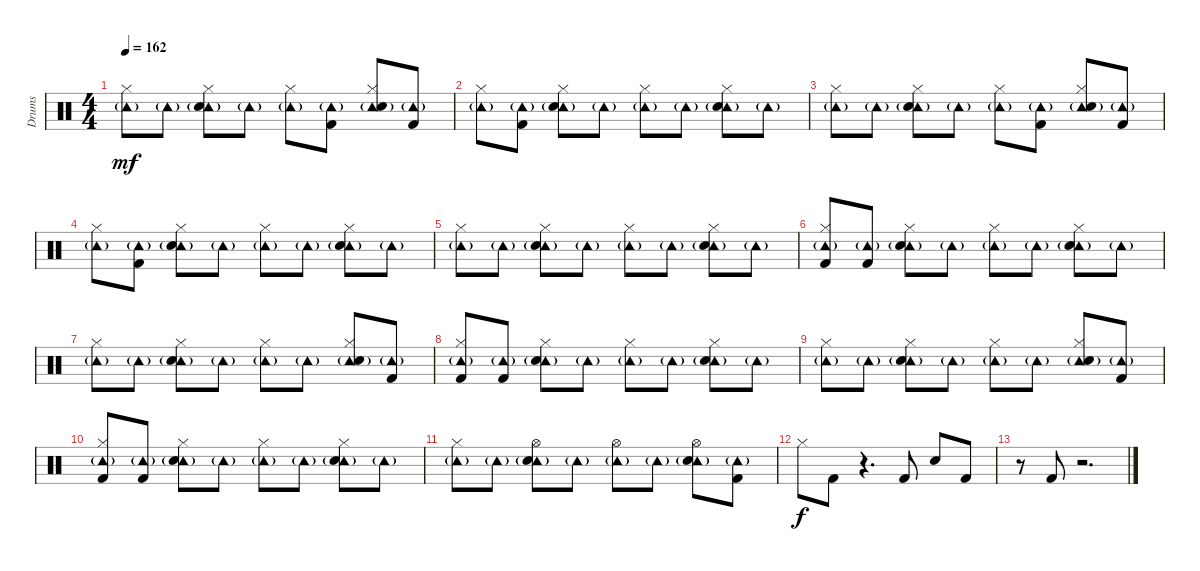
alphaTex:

\track ("Drums" "Drums") {instrument percussion}
\staff {score}
\articulation defaults
\ts (4 4)
\tempo 162
\clef neutral
\ks c
("Tambourine (hit)"{g} "Hi-Hat (closed)").8{dy mf} "Tambourine (hit)"{g}.8 ("Tambourine (hit)"{g} "Snare (hit) 2" "Hi-Hat (closed)").8 "Tambourine (hit)"{g}.8 ("Tambourine (hit)"{g} "Hi-Hat (closed)").8 ("Tambourine (hit)"{g} "Kick (hit) 2").8 ("Tambourine (hit)"{g} "Snare (hit) 2" "Hi-Hat (closed)").8 ("Tambourine (hit)"{g} "Kick (hit) 2").8 |
("Tambourine (hit)"{g} "Hi-Hat (closed)").8 ("Tambourine (hit)"{g} "Kick (hit) 2").8 ("Tambourine (hit)"{g} "Snare (hit) 2" "Hi-Hat (closed)").8 "Tambourine (hit)"{g}.8 ("Tambourine (hit)"{g} "Hi-Hat (closed)").8 "Tambourine (hit)"{g}.8 ("Tambourine (hit)"{g} "Snare (hit) 2" "Hi-Hat (closed)").8 "Tambourine (hit)"{g}.8 |
("Tambourine (hit)"{g} "Hi-Hat (closed)").8 "Tambourine (hit)"{g}.8 ("Tambourine (hit)"{g} "Snare (hit) 2" "Hi-Hat (closed)").8 "Tambourine (hit)"{g}.8 ("Tambourine (hit)"{g} "Hi-Hat (closed)").8 ("Tambourine (hit)"{g} "Kick (hit) 2").8 ("Tambourine (hit)"{g} "Snare (hit) 2" "Hi-Hat (closed)").8 ("Tambourine (hit)"{g} "Kick (hit) 2").8 |
("Tambourine (hit)"{g} "Hi-Hat (closed)").8 ("Tambourine (hit)"{g} "Kick (hit) 2").8 ("Tambourine (hit)"{g} "Snare (hit) 2" "Hi-Hat (closed)").8 "Tambourine (hit)"{g}.8 ("Tambourine (hit)"{g} "Hi-Hat (closed)").8 "Tambourine (hit)"{g}.8 ("Tambourine (hit)"{g} "Snare (hit) 2" "Hi-Hat (closed)").8 "Tambourine (hit)"{g}.8 |
("Tambourine (hit)"{g} "Hi-Hat (closed)").8 "Tambourine (hit)"{g}.8 ("Tambourine (hit)"{g} "Snare (hit) 2" "Hi-Hat (closed)").8 "Tambourine (hit)"{g}.8 ("Tambourine (hit)"{g} "Hi-Hat (closed)").8 "Tambourine (hit)"{g}.8 ("Tambourine (hit)"{g} "Snare (hit) 2" "Hi-Hat (closed)").8 "Tambourine (hit)"{g}.8 |
("Tambourine (hit)"{g} "Hi-Hat (closed)" "Kick (hit) 2").8 ("Tambourine (hit)"{g} "Kick (hit) 2").8 ("Tambourine (hit)"{g} "Snare (hit) 2" "Hi-Hat (closed)").8 "Tambourine (hit)"{g}.8 ("Tambourine (hit)"{g} "Hi-Hat (closed)").8 "Tambourine (hit)"{g}.8 ("Tambourine (hit)"{g} "Snare (hit) 2" "Hi-Hat (closed)").8 "Tambourine (hit)"{g}.8 |
("Tambourine (hit)"{g} "Hi-Hat (closed)").8 "Tambourine (hit)"{g}.8 ("Tambourine (hit)"{g} "Snare (hit) 2" "Hi-Hat (closed)").8 "Tambourine (hit)"{g}.8 ("Tambourine (hit)"{g} "Hi-Hat (closed)").8 "Tambourine (hit)"{g}.8 ("Tambourine (hit)"{g} "Snare (hit) 2" "Hi-Hat (closed)").8 ("Tambourine (hit)"{g} "Kick (hit) 2").8 |
("Tambourine (hit)"{g} "Hi-Hat (closed)" "Kick (hit) 2").8 ("Tambourine (hit)"{g} "Kick (hit) 2").8 ("Tambourine (hit)"{g} "Snare (hit) 2" "Hi-Hat (closed)").8 "Tambourine (hit)"{g}.8 ("Tambourine (hit)"{g} "Hi-Hat (closed)").8 "Tambourine (hit)"{g}.8 ("Tambourine (hit)"{g} "Snare (hit) 2" "Hi-Hat (closed)").8 "Tambourine (hit)"{g}.8 |
("Tambourine (hit)"{g} "Hi-Hat (closed)").8 "Tambourine (hit)"{g}.8 ("Tambourine (hit)"{g} "Snare (hit) 2" "Hi-Hat (closed)").8 "Tambourine (hit)"{g}.8 ("Tambourine (hit)"{g} "Hi-Hat (closed)").8 "Tambourine (hit)"{g}.8 ("Tambourine (hit)"{g} "Snare (hit) 2" "Hi-Hat (closed)").8 ("Tambourine (hit)"{g} "Kick (hit) 2").8 |
("Tambourine (hit)"{g} "Hi-Hat (closed)" "Kick (hit) 2").8 ("Tambourine (hit)"{g} "Kick (hit) 2").8 ("Tambourine (hit)"{g} "Snare (hit) 2" "Hi-Hat (closed)").8 "Tambourine (hit)"{g}.8 ("Tambourine (hit)"{g} "Hi-Hat (closed)").8 "Tambourine (hit)"{g}.8 ("Tambourine (hit)"{g} "Snare (hit) 2" "Hi-Hat (closed)").8 "Tambourine (hit)"{g}.8 |
("Tambourine (hit)"{g} "Hi-Hat (closed)").8 "Tambourine (hit)"{g}.8 ("Tambourine (hit)"{g} "Snare (hit) 2" "Hi-Hat (open)").8 "Tambourine (hit)"{g}.8 ("Tambourine (hit)"{g} "Hi-Hat (open)").8 "Tambourine (hit)"{g}.8 ("Tambourine (hit)"{g} "Snare (hit) 2" "Hi-Hat (open)").8 ("Tambourine (hit)"{g} "Kick (hit) 2").8 |
"Hi-Hat (closed)".8{dy f} "Kick (hit) 2".8 r.4{d} "Kick (hit) 2".8 "Snare (hit) 2".8 "Kick (hit) 2".8 |
r.8 "Kick (hit) 2".8 r.2{d}
